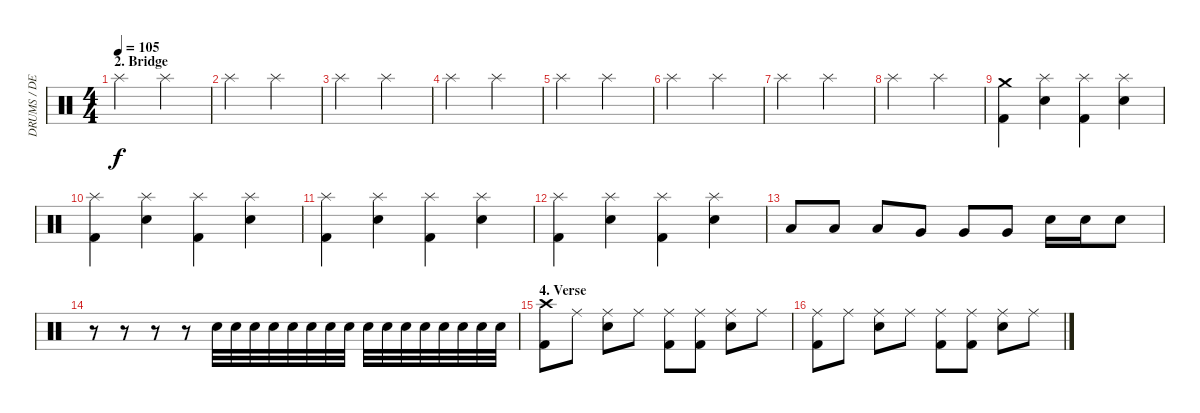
\track ("DRUMS / DENNn!S" "DRUMS / DE") {instrument percussion}
\staff {score}
\articulation defaults
\ts (4 4)
\section ("" "2. Bridge")
\tempo 105
\clef neutral
\ks c "Splash (hit)".2{dy f} "Splash (hit)".2
|
"Splash (hit)".2 "Splash (hit)".2 |
"Splash (hit)".2 "Splash (hit)".2 |
"Splash (hit)".2 "Splash (hit)".2 |
"Splash (hit)".2 "Splash (hit)".2 |
"Splash (hit)".2 "Splash (hit)".2 |
"Splash (hit)".2 "Splash (hit)".2 |
"Splash (hit)".2 "Splash (hit)".2 |
("Kick (hit) 2" "Crash medium (hit)").4 ("Electric Snare (hit)" "Splash (hit)").4 ("Kick (hit) 2" "Splash (hit)").4 ("Electric Snare (hit)" "Splash (hit)").4 |
("Kick (hit) 2" "Splash (hit)").4 ("Electric Snare (hit)" "Splash (hit)").4 ("Kick (hit) 2" "Splash (hit)").4 ("Electric Snare (hit)" "Splash (hit)").4 |
("Kick (hit) 2" "Splash (hit)").4 ("Electric Snare (hit)" "Splash (hit)").4 ("Kick (hit) 2" "Splash (hit)").4 ("Electric Snare (hit)" "Splash (hit)").4 |
("Kick (hit) 2" "Splash (hit)").4 ("Electric Snare (hit)" "Splash (hit)").4 ("Kick (hit) 2" "Splash (hit)").4 ("Electric Snare (hit)" "Splash (hit)").4 |
"Low Floor Tom (hit)".8 "Low Floor Tom (hit)".8 "Low Floor Tom (hit)".8 "Very Low Tom (hit)".8 "Very Low Tom (hit)".8 "Very Low Tom (hit)".8 "Electric Snare (hit)".16 "Electric Snare (hit)".16 "Electric Snare (hit)".8 |
r.8 r.8 r.8 r.8 "Electric Snare (hit)".32 "Electric Snare (hit)".32 "Electric Snare (hit)".32 "Electric Snare (hit)".32 "Electric Snare (hit)".32 "Electric Snare (hit)".32 "Electric Snare (hit)".32 "Electric Snare (hit)".32 "Electric Snare (hit)".32 "Electric Snare (hit)".32 "Electric Snare (hit)".32 "Electric Snare (hit)".32 "Electric Snare (hit)".32 "Electric Snare (hit)".32 "Electric Snare (hit)".32 "Electric Snare (hit)".32 |
\section ("" "4. Verse")
("Crash high (hit)" "Kick (hit) 2").8 "Ride (middle)".8 ("Ride (middle)" "Electric Snare (hit)").8 "Ride (middle)".8 ("Ride (middle)" "Kick (hit) 2").8 ("Ride (middle)" "Kick (hit) 2").8 ("Ride (middle)" "Electric Snare (hit)").8 "Ride (middle)".8 |
("Ride (middle)" "Kick (hit) 2").8 "Ride (middle)".8 ("Ride (middle)" "Electric Snare (hit)").8 "Ride (middle)".8 ("Ride (middle)" "Kick (hit) 2").8 ("Ride (middle)" "Kick (hit) 2").8 ("Ride (middle)" "Electric Snare (hit)").8 "Ride (middle)".8
